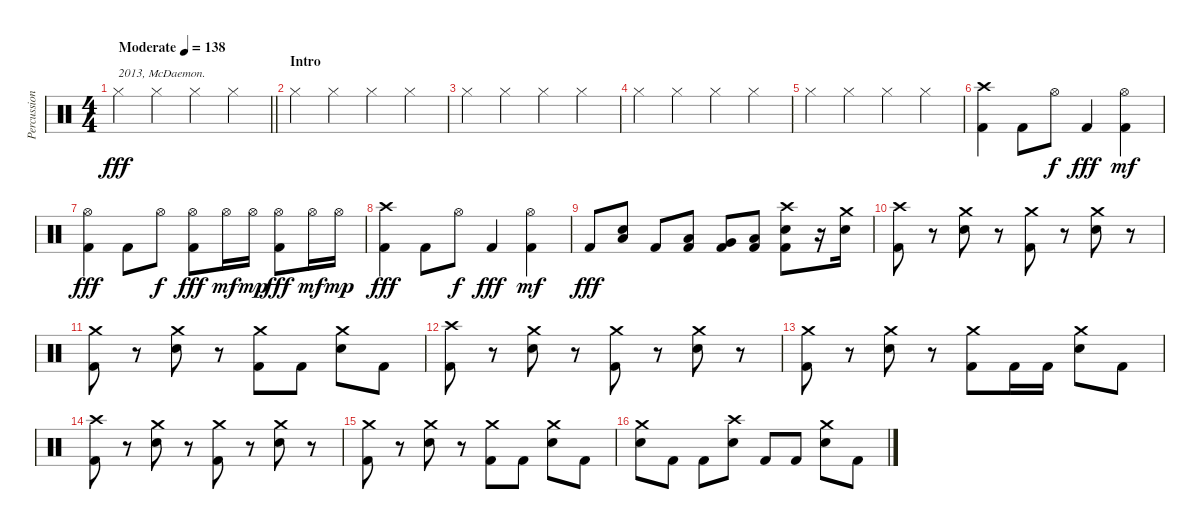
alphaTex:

\track ("Percussion" "Percussion") {instrument percussion}
\staff {score}
\articulation defaults
\ts (4 4)
\tempo (138 "Moderate")
\clef neutral
\barLineRight lightlight
\ks c "Hi-Hat (closed)".4{txt "2013, McDaemon." dy fff} "Hi-Hat (closed)".4 "Hi-Hat (closed)".4 "Hi-Hat (closed)".4
|
\section ("" "Intro")
"Hi-Hat (closed)".4 "Hi-Hat (closed)".4 "Hi-Hat (closed)".4 "Hi-Hat (closed)".4 |
"Hi-Hat (closed)".4 "Hi-Hat (closed)".4 "Hi-Hat (closed)".4 "Hi-Hat (closed)".4 |
"Hi-Hat (closed)".4 "Hi-Hat (closed)".4 "Hi-Hat (closed)".4 "Hi-Hat (closed)".4 |
"Hi-Hat (closed)".4 "Hi-Hat (closed)".4 "Hi-Hat (closed)".4 "Hi-Hat (closed)".4 |
("Kick (hit) 2" "Crash high (hit)").4 "Kick (hit) 2".8 "Hi-Hat (open)".8{dy f} "Kick (hit) 2".4{dy fff} ("Kick (hit) 2" "Hi-Hat (open)").4{dy mf} |
("Kick (hit) 2" "Hi-Hat (open)").4{dy fff} "Kick (hit) 2".8 "Hi-Hat (open)".8{dy f} ("Kick (hit) 2" "Hi-Hat (open)").8{dy fff} "Hi-Hat (open)".16{dy mf} "Hi-Hat (open)".16{dy mp} ("Kick (hit) 2" "Hi-Hat (open)").8{dy fff} "Hi-Hat (open)".16{dy mf} "Hi-Hat (open)".16{dy mp} |
("Kick (hit) 2" "Crash high (hit)").4{dy fff} "Kick (hit) 2".8 "Hi-Hat (open)".8{dy f} "Kick (hit) 2".4{dy fff} ("Kick (hit) 2" "Hi-Hat (open)").4{dy mf} |
"Kick (hit) 2".8{dy fff} ("Snare (hit) 2" "Low Tom (hit)").8 "Kick (hit) 2".8 ("Kick (hit) 2" "Low Floor Tom (hit)").8 ("Kick (hit) 2" "Very Low Tom (hit)").8 ("Kick (hit) 2" "Low Floor Tom (hit)").8 ("Kick (hit) 2" "Snare (hit) 2" "Crash high (hit)").8 r.16 ("Snare (hit) 2" "Crash medium (hit)").16 |
("Kick (hit) 2" "Crash high (hit)").8 r.8 ("Snare (hit) 2" "Crash medium (hit)").8 r.8 ("Kick (hit) 2" "Crash medium (hit)").8 r.8 ("Snare (hit) 2" "Crash medium (hit)").8 r.8 |
("Kick (hit) 2" "Crash medium (hit)").8 r.8 ("Snare (hit) 2" "Crash medium (hit)").8 r.8 ("Kick (hit) 2" "Crash medium (hit)").8 "Kick (hit) 2".8 ("Snare (hit) 2" "Crash medium (hit)").8 "Kick (hit) 2".8 |
("Kick (hit) 2" "Crash high (hit)").8 r.8 ("Snare (hit) 2" "Crash medium (hit)").8 r.8 ("Kick (hit) 2" "Crash medium (hit)").8 r.8 ("Snare (hit) 2" "Crash medium (hit)").8 r.8 |
("Kick (hit) 2" "Crash medium (hit)").8 r.8 ("Snare (hit) 2" "Crash medium (hit)").8 r.8 ("Kick (hit) 2" "Crash medium (hit)").8 "Kick (hit) 2".16 "Kick (hit) 2".16 ("Snare (hit) 2" "Crash medium (hit)").8 "Kick (hit) 2".8 |
("Kick (hit) 2" "Crash high (hit)").8 r.8 ("Snare (hit) 2" "Crash medium (hit)").8 r.8 ("Kick (hit) 2" "Crash medium (hit)").8 r.8 ("Snare (hit) 2" "Crash medium (hit)").8 r.8 |
("Kick (hit) 2" "Crash medium (hit)").8 r.8 ("Snare (hit) 2" "Crash medium (hit)").8 r.8 ("Kick (hit) 2" "Crash medium (hit)").8 "Kick (hit) 2".8 ("Snare (hit) 2" "Crash medium (hit)").8 "Kick (hit) 2".8 |
("Snare (hit) 2" "Crash medium (hit)").8 "Kick (hit) 2".8 "Kick (hit) 2".8 ("Snare (hit) 2" "Crash high (hit)").8 "Kick (hit) 2".8 "Kick (hit) 2".8 ("Snare (hit) 2" "Crash medium (hit)").8 "Kick (hit) 2".8
